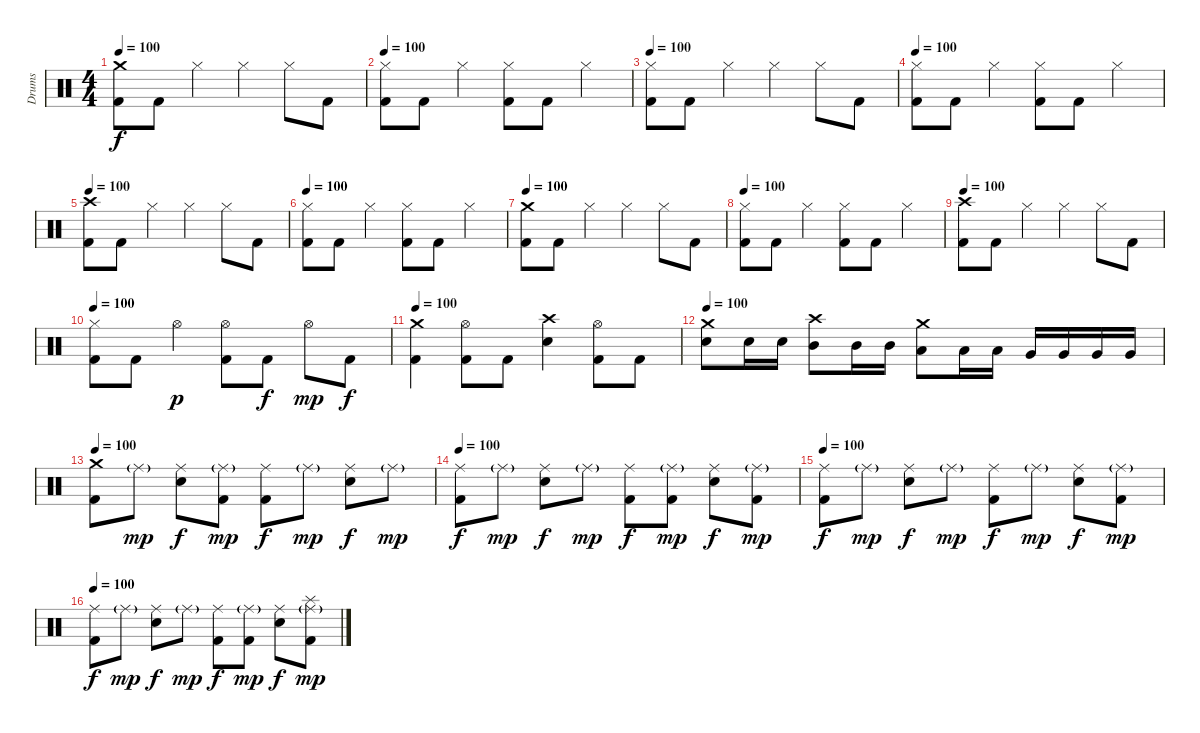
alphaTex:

\track ("Drums" "Drums") {instrument percussion}
\staff {score}
\articulation defaults
\ts (4 4)
\tempo 100
\clef neutral
\ks c
("Crash medium (hit)" "Kick (hit) 2").8{dy f} "Kick (hit) 2".8 "Hi-Hat (closed)".4 "Hi-Hat (closed)".4 "Hi-Hat (closed)".8 "Kick (hit) 2".8 |
\tempo 100
("Hi-Hat (closed)" "Kick (hit) 2").8 "Kick (hit) 2".8 "Hi-Hat (closed)".4 ("Hi-Hat (closed)" "Kick (hit) 2").8 "Kick (hit) 2".8 "Hi-Hat (closed)".4 |
\tempo 100
("Hi-Hat (closed)" "Kick (hit) 2").8 "Kick (hit) 2".8 "Hi-Hat (closed)".4 "Hi-Hat (closed)".4 "Hi-Hat (closed)".8 "Kick (hit) 2".8 |
\tempo 100
("Hi-Hat (closed)" "Kick (hit) 2").8 "Kick (hit) 2".8 "Hi-Hat (closed)".4 ("Hi-Hat (closed)" "Kick (hit) 2").8 "Kick (hit) 2".8 "Hi-Hat (closed)".4 |
\tempo 100
("Crash high (hit)" "Kick (hit) 2").8 "Kick (hit) 2".8 "Hi-Hat (closed)".4 "Hi-Hat (closed)".4 "Hi-Hat (closed)".8 "Kick (hit) 2".8 |
\tempo 100
("Hi-Hat (closed)" "Kick (hit) 2").8 "Kick (hit) 2".8 "Hi-Hat (closed)".4 ("Hi-Hat (closed)" "Kick (hit) 2").8 "Kick (hit) 2".8 "Hi-Hat (closed)".4 |
\tempo 100
("Crash medium (hit)" "Kick (hit) 2").8 "Kick (hit) 2".8 "Hi-Hat (closed)".4 "Hi-Hat (closed)".4 "Hi-Hat (closed)".8 "Kick (hit) 2".8 |
\tempo 100
("Hi-Hat (closed)" "Kick (hit) 2").8 "Kick (hit) 2".8 "Hi-Hat (closed)".4 ("Hi-Hat (closed)" "Kick (hit) 2").8 "Kick (hit) 2".8 "Hi-Hat (closed)".4 |
\tempo 100
("Crash high (hit)" "Kick (hit) 2").8 "Kick (hit) 2".8 "Hi-Hat (closed)".4 "Hi-Hat (closed)".4 "Hi-Hat (closed)".8 "Kick (hit) 2".8 |
\tempo 100
("Hi-Hat (closed)" "Kick (hit) 2").8 "Kick (hit) 2".8 "Hi-Hat (open)".4{dy p} ("Hi-Hat (open)" "Kick (hit) 2").8 "Kick (hit) 2".8{dy f} "Hi-Hat (open)".8{dy mp} "Kick (hit) 2".8{dy f} |
\tempo 100
("Crash medium (hit)" "Kick (hit) 2").4 ("Hi-Hat (open)" "Kick (hit) 2").8 "Kick (hit) 2".8 ("Crash high (hit)" "Electric Snare (hit)").4 ("Hi-Hat (open)" "Kick (hit) 2").8 "Kick (hit) 2".8 |
\tempo 100
("Crash medium (hit)" "Electric Snare (hit)").8 "Electric Snare (hit)".16 "Electric Snare (hit)".16 ("Crash high (hit)" "Mid Tom (hit)").8 "Mid Tom (hit)".16 "Mid Tom (hit)".16 ("Crash medium (hit)" "Low Tom (hit)").8 "Low Tom (hit)".16 "Low Tom (hit)".16 "Very Low Tom (hit)".16 "Very Low Tom (hit)".16 "Very Low Tom (hit)".16 "Very Low Tom (hit)".16 |
\tempo 100
("Crash medium (hit)" "Kick (hit) 2").8 "Ride (middle)"{g}.8{dy mp} ("Electric Snare (hit)" "Ride (middle)").8{dy f} ("Ride (middle)"{g} "Kick (hit) 2").8{dy mp} ("Ride (middle)" "Kick (hit) 2").8{dy f} "Ride (middle)"{g}.8{dy mp} ("Electric Snare (hit)" "Ride (middle)").8{dy f} "Ride (middle)"{g}.8{dy mp} |
\tempo 100
("Ride (middle)" "Kick (hit) 2").8{dy f} "Ride (middle)"{g}.8{dy mp} ("Electric Snare (hit)" "Ride (middle)").8{dy f} "Ride (middle)"{g}.8{dy mp} ("Ride (middle)" "Kick (hit) 2").8{dy f} ("Ride (middle)"{g} "Kick (hit) 2").8{dy mp} ("Electric Snare (hit)" "Ride (middle)").8{dy f} ("Ride (middle)"{g} "Kick (hit) 2").8{dy mp} |
\tempo 100
("Ride (middle)" "Kick (hit) 2").8{dy f} "Ride (middle)"{g}.8{dy mp} ("Electric Snare (hit)" "Ride (middle)").8{dy f} "Ride (middle)"{g}.8{dy mp} ("Ride (middle)" "Kick (hit) 2").8{dy f} "Ride (middle)"{g}.8{dy mp} ("Electric Snare (hit)" "Ride (middle)").8{dy f} ("Ride (middle)"{g} "Kick (hit) 2").8{dy mp} |
\tempo 100
("Ride (middle)" "Kick (hit) 2").8{dy f} "Ride (middle)"{g}.8{dy mp} ("Electric Snare (hit)" "Ride (middle)").8{dy f} "Ride (middle)"{g}.8{dy mp} ("Ride (middle)" "Kick (hit) 2").8{dy f} ("Ride (middle)"{g} "Kick (hit) 2").8{dy mp} ("Electric Snare (hit)" "Ride (middle)").8{dy f} ("Splash (hit)" "Ride (middle)"{g} "Kick (hit) 2").8{dy mp}
